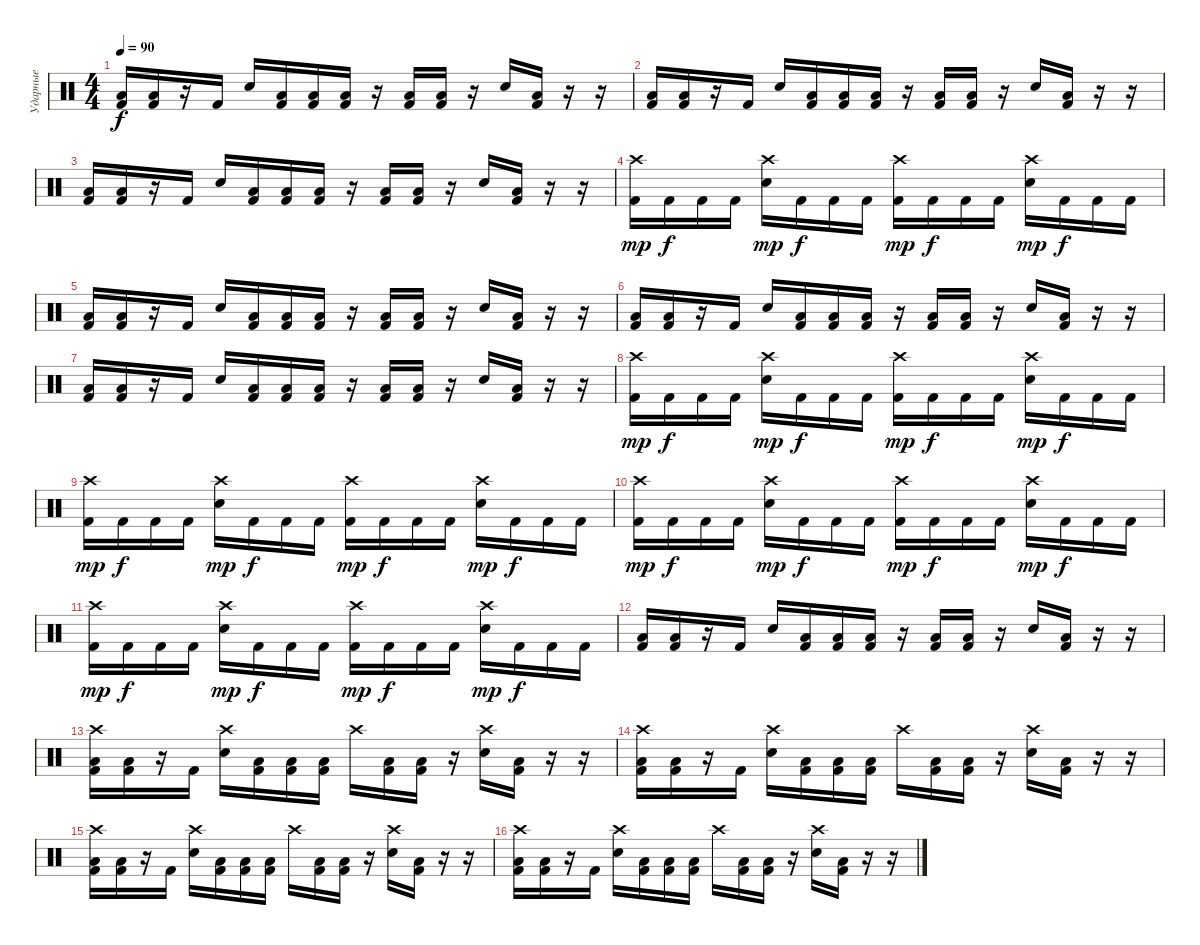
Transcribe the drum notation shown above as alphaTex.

\track ("Ударные" "Ударные") {instrument percussion}
\staff {score}
\articulation defaults
\ts (4 4)
\tempo 90
\clef neutral
\ks c
("Kick (hit) 2" "Low Floor Tom (hit)").16{dy f} ("Kick (hit) 2" "Low Floor Tom (hit)").16 r.16 "Kick (hit) 2".16 "Snare (hit) 2".16 ("Low Floor Tom (hit)" "Kick (hit) 2").16 ("Low Floor Tom (hit)" "Kick (hit) 2").16 ("Low Floor Tom (hit)" "Kick (hit) 2").16 r.16 ("Low Floor Tom (hit)" "Kick (hit) 2").16 ("Low Floor Tom (hit)" "Kick (hit) 2").16 r.16 "Snare (hit) 2".16 ("Kick (hit) 2" "Low Floor Tom (hit)").16 r.16 r.16 |
("Kick (hit) 2" "Low Floor Tom (hit)").16 ("Kick (hit) 2" "Low Floor Tom (hit)").16 r.16 "Kick (hit) 2".16 "Snare (hit) 2".16 ("Low Floor Tom (hit)" "Kick (hit) 2").16 ("Low Floor Tom (hit)" "Kick (hit) 2").16 ("Low Floor Tom (hit)" "Kick (hit) 2").16 r.16 ("Low Floor Tom (hit)" "Kick (hit) 2").16 ("Low Floor Tom (hit)" "Kick (hit) 2").16 r.16 "Snare (hit) 2".16 ("Kick (hit) 2" "Low Floor Tom (hit)").16 r.16 r.16 |
("Kick (hit) 2" "Low Floor Tom (hit)").16 ("Kick (hit) 2" "Low Floor Tom (hit)").16 r.16 "Kick (hit) 2".16 "Snare (hit) 2".16 ("Low Floor Tom (hit)" "Kick (hit) 2").16 ("Low Floor Tom (hit)" "Kick (hit) 2").16 ("Low Floor Tom (hit)" "Kick (hit) 2").16 r.16 ("Low Floor Tom (hit)" "Kick (hit) 2").16 ("Low Floor Tom (hit)" "Kick (hit) 2").16 r.16 "Snare (hit) 2".16 ("Kick (hit) 2" "Low Floor Tom (hit)").16 r.16 r.16 |
("Crash high (hit)" "Kick (hit) 2").16{dy mp} "Kick (hit) 2".16{dy f} "Kick (hit) 2".16 "Kick (hit) 2".16 ("Crash high (hit)" "Snare (hit) 2").16{dy mp} "Kick (hit) 2".16{dy f} "Kick (hit) 2".16 "Kick (hit) 2".16 ("Crash high (hit)" "Kick (hit) 2").16{dy mp} "Kick (hit) 2".16{dy f} "Kick (hit) 2".16 "Kick (hit) 2".16 ("Crash high (hit)" "Snare (hit) 2").16{dy mp} "Kick (hit) 2".16{dy f} "Kick (hit) 2".16 "Kick (hit) 2".16 |
("Kick (hit) 2" "Low Floor Tom (hit)").16 ("Kick (hit) 2" "Low Floor Tom (hit)").16 r.16 "Kick (hit) 2".16 "Snare (hit) 2".16 ("Low Floor Tom (hit)" "Kick (hit) 2").16 ("Low Floor Tom (hit)" "Kick (hit) 2").16 ("Low Floor Tom (hit)" "Kick (hit) 2").16 r.16 ("Low Floor Tom (hit)" "Kick (hit) 2").16 ("Low Floor Tom (hit)" "Kick (hit) 2").16 r.16 "Snare (hit) 2".16 ("Kick (hit) 2" "Low Floor Tom (hit)").16 r.16 r.16 |
("Kick (hit) 2" "Low Floor Tom (hit)").16 ("Kick (hit) 2" "Low Floor Tom (hit)").16 r.16 "Kick (hit) 2".16 "Snare (hit) 2".16 ("Low Floor Tom (hit)" "Kick (hit) 2").16 ("Low Floor Tom (hit)" "Kick (hit) 2").16 ("Low Floor Tom (hit)" "Kick (hit) 2").16 r.16 ("Low Floor Tom (hit)" "Kick (hit) 2").16 ("Low Floor Tom (hit)" "Kick (hit) 2").16 r.16 "Snare (hit) 2".16 ("Kick (hit) 2" "Low Floor Tom (hit)").16 r.16 r.16 |
("Kick (hit) 2" "Low Floor Tom (hit)").16 ("Kick (hit) 2" "Low Floor Tom (hit)").16 r.16 "Kick (hit) 2".16 "Snare (hit) 2".16 ("Low Floor Tom (hit)" "Kick (hit) 2").16 ("Low Floor Tom (hit)" "Kick (hit) 2").16 ("Low Floor Tom (hit)" "Kick (hit) 2").16 r.16 ("Low Floor Tom (hit)" "Kick (hit) 2").16 ("Low Floor Tom (hit)" "Kick (hit) 2").16 r.16 "Snare (hit) 2".16 ("Kick (hit) 2" "Low Floor Tom (hit)").16 r.16 r.16 |
("Crash high (hit)" "Kick (hit) 2").16{dy mp} "Kick (hit) 2".16{dy f} "Kick (hit) 2".16 "Kick (hit) 2".16 ("Crash high (hit)" "Snare (hit) 2").16{dy mp} "Kick (hit) 2".16{dy f} "Kick (hit) 2".16 "Kick (hit) 2".16 ("Crash high (hit)" "Kick (hit) 2").16{dy mp} "Kick (hit) 2".16{dy f} "Kick (hit) 2".16 "Kick (hit) 2".16 ("Crash high (hit)" "Snare (hit) 2").16{dy mp} "Kick (hit) 2".16{dy f} "Kick (hit) 2".16 "Kick (hit) 2".16 |
("Crash high (hit)" "Kick (hit) 2").16{dy mp} "Kick (hit) 2".16{dy f} "Kick (hit) 2".16 "Kick (hit) 2".16 ("Crash high (hit)" "Snare (hit) 2").16{dy mp} "Kick (hit) 2".16{dy f} "Kick (hit) 2".16 "Kick (hit) 2".16 ("Crash high (hit)" "Kick (hit) 2").16{dy mp} "Kick (hit) 2".16{dy f} "Kick (hit) 2".16 "Kick (hit) 2".16 ("Crash high (hit)" "Snare (hit) 2").16{dy mp} "Kick (hit) 2".16{dy f} "Kick (hit) 2".16 "Kick (hit) 2".16 |
("Crash high (hit)" "Kick (hit) 2").16{dy mp} "Kick (hit) 2".16{dy f} "Kick (hit) 2".16 "Kick (hit) 2".16 ("Crash high (hit)" "Snare (hit) 2").16{dy mp} "Kick (hit) 2".16{dy f} "Kick (hit) 2".16 "Kick (hit) 2".16 ("Crash high (hit)" "Kick (hit) 2").16{dy mp} "Kick (hit) 2".16{dy f} "Kick (hit) 2".16 "Kick (hit) 2".16 ("Crash high (hit)" "Snare (hit) 2").16{dy mp} "Kick (hit) 2".16{dy f} "Kick (hit) 2".16 "Kick (hit) 2".16 |
("Crash high (hit)" "Kick (hit) 2").16{dy mp} "Kick (hit) 2".16{dy f} "Kick (hit) 2".16 "Kick (hit) 2".16 ("Crash high (hit)" "Snare (hit) 2").16{dy mp} "Kick (hit) 2".16{dy f} "Kick (hit) 2".16 "Kick (hit) 2".16 ("Crash high (hit)" "Kick (hit) 2").16{dy mp} "Kick (hit) 2".16{dy f} "Kick (hit) 2".16 "Kick (hit) 2".16 ("Crash high (hit)" "Snare (hit) 2").16{dy mp} "Kick (hit) 2".16{dy f} "Kick (hit) 2".16 "Kick (hit) 2".16 |
("Kick (hit) 2" "Low Floor Tom (hit)").16 ("Kick (hit) 2" "Low Floor Tom (hit)").16 r.16 "Kick (hit) 2".16 "Snare (hit) 2".16 ("Low Floor Tom (hit)" "Kick (hit) 2").16 ("Low Floor Tom (hit)" "Kick (hit) 2").16 ("Low Floor Tom (hit)" "Kick (hit) 2").16 r.16 ("Low Floor Tom (hit)" "Kick (hit) 2").16 ("Low Floor Tom (hit)" "Kick (hit) 2").16 r.16 "Snare (hit) 2".16 ("Kick (hit) 2" "Low Floor Tom (hit)").16 r.16 r.16 |
("Crash high (hit)" "Kick (hit) 2" "Low Floor Tom (hit)").16 ("Kick (hit) 2" "Low Floor Tom (hit)").16 r.16 "Kick (hit) 2".16 ("Crash high (hit)" "Snare (hit) 2").16 ("Low Floor Tom (hit)" "Kick (hit) 2").16 ("Low Floor Tom (hit)" "Kick (hit) 2").16 ("Low Floor Tom (hit)" "Kick (hit) 2").16 "Crash high (hit)".16 ("Low Floor Tom (hit)" "Kick (hit) 2").16 ("Low Floor Tom (hit)" "Kick (hit) 2").16 r.16 ("Crash high (hit)" "Snare (hit) 2").16 ("Kick (hit) 2" "Low Floor Tom (hit)").16 r.16 r.16 |
("Crash high (hit)" "Kick (hit) 2" "Low Floor Tom (hit)").16 ("Kick (hit) 2" "Low Floor Tom (hit)").16 r.16 "Kick (hit) 2".16 ("Crash high (hit)" "Snare (hit) 2").16 ("Low Floor Tom (hit)" "Kick (hit) 2").16 ("Low Floor Tom (hit)" "Kick (hit) 2").16 ("Low Floor Tom (hit)" "Kick (hit) 2").16 "Crash high (hit)".16 ("Low Floor Tom (hit)" "Kick (hit) 2").16 ("Low Floor Tom (hit)" "Kick (hit) 2").16 r.16 ("Crash high (hit)" "Snare (hit) 2").16 ("Kick (hit) 2" "Low Floor Tom (hit)").16 r.16 r.16 |
("Crash high (hit)" "Kick (hit) 2" "Low Floor Tom (hit)").16 ("Kick (hit) 2" "Low Floor Tom (hit)").16 r.16 "Kick (hit) 2".16 ("Crash high (hit)" "Snare (hit) 2").16 ("Low Floor Tom (hit)" "Kick (hit) 2").16 ("Low Floor Tom (hit)" "Kick (hit) 2").16 ("Low Floor Tom (hit)" "Kick (hit) 2").16 "Crash high (hit)".16 ("Low Floor Tom (hit)" "Kick (hit) 2").16 ("Low Floor Tom (hit)" "Kick (hit) 2").16 r.16 ("Crash high (hit)" "Snare (hit) 2").16 ("Kick (hit) 2" "Low Floor Tom (hit)").16 r.16 r.16 |
("Crash high (hit)" "Kick (hit) 2" "Low Floor Tom (hit)").16 ("Kick (hit) 2" "Low Floor Tom (hit)").16 r.16 "Kick (hit) 2".16 ("Crash high (hit)" "Snare (hit) 2").16 ("Low Floor Tom (hit)" "Kick (hit) 2").16 ("Low Floor Tom (hit)" "Kick (hit) 2").16 ("Low Floor Tom (hit)" "Kick (hit) 2").16 "Crash high (hit)".16 ("Low Floor Tom (hit)" "Kick (hit) 2").16 ("Low Floor Tom (hit)" "Kick (hit) 2").16 r.16 ("Crash high (hit)" "Snare (hit) 2").16 ("Kick (hit) 2" "Low Floor Tom (hit)").16 r.16 r.16
